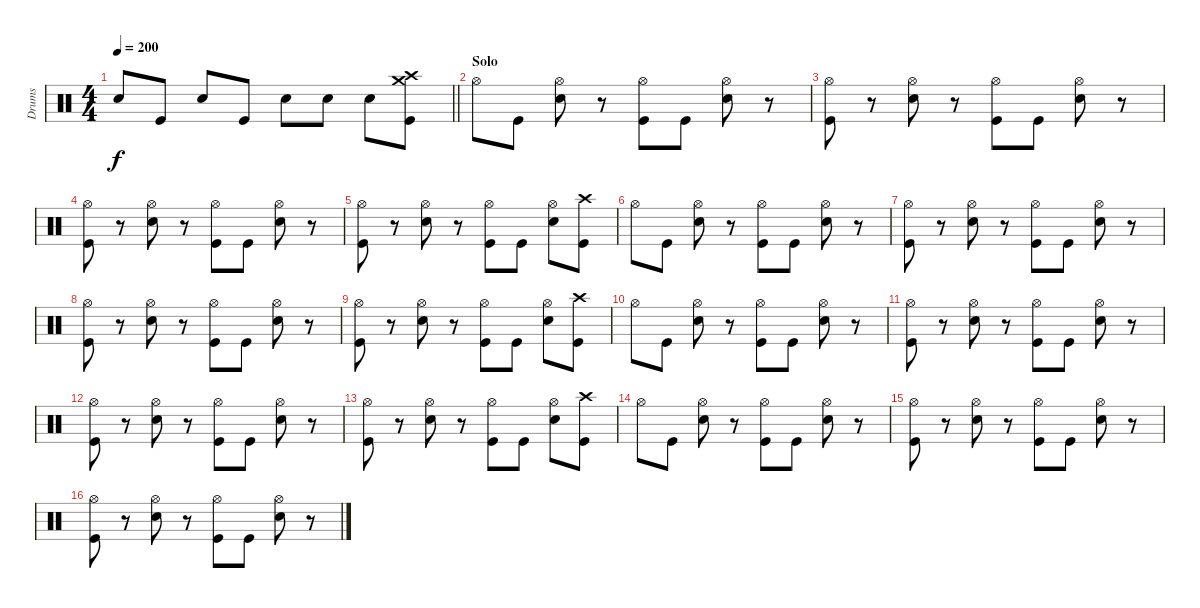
\track ("Drums" "Drums") {instrument percussion}
\staff {score}
\articulation defaults
\ts (4 4)
\tempo 200
\clef neutral
\barLineRight lightlight
\ks c "Electric Snare (hit)".8{dy f} "Kick (hit)".8 "Electric Snare (hit)".8 "Kick (hit)".8 "Electric Snare (hit)".8 "Electric Snare (hit)".8 "Electric Snare (hit)".8
("Crash high (hit)" "Crash medium (hit)" "Kick (hit)").8 |
\section ("" "Solo")
"Hi-Hat (open)".8 "Kick (hit)".8 ("Hi-Hat (open)" "Electric Snare (hit)").8 r.8 ("Hi-Hat (open)" "Kick (hit)").8 "Kick (hit)".8 ("Hi-Hat (open)" "Electric Snare (hit)").8 r.8 |
("Hi-Hat (open)" "Kick (hit)").8 r.8 ("Hi-Hat (open)" "Electric Snare (hit)").8 r.8 ("Hi-Hat (open)" "Kick (hit)").8 "Kick (hit)".8 ("Hi-Hat (open)" "Electric Snare (hit)").8 r.8 |
("Hi-Hat (open)" "Kick (hit)").8 r.8 ("Hi-Hat (open)" "Electric Snare (hit)").8 r.8 ("Hi-Hat (open)" "Kick (hit)").8 "Kick (hit)".8 ("Hi-Hat (open)" "Electric Snare (hit)").8 r.8 |
("Hi-Hat (open)" "Kick (hit)").8 r.8 ("Hi-Hat (open)" "Electric Snare (hit)").8 r.8 ("Hi-Hat (open)" "Kick (hit)").8 "Kick (hit)".8 ("Hi-Hat (open)" "Electric Snare (hit)").8 ("Crash high (hit)" "Kick (hit)").8 |
"Hi-Hat (open)".8 "Kick (hit)".8 ("Hi-Hat (open)" "Electric Snare (hit)").8 r.8 ("Hi-Hat (open)" "Kick (hit)").8 "Kick (hit)".8 ("Hi-Hat (open)" "Electric Snare (hit)").8 r.8 |
("Hi-Hat (open)" "Kick (hit)").8 r.8 ("Hi-Hat (open)" "Electric Snare (hit)").8 r.8 ("Hi-Hat (open)" "Kick (hit)").8 "Kick (hit)".8 ("Hi-Hat (open)" "Electric Snare (hit)").8 r.8 |
("Hi-Hat (open)" "Kick (hit)").8 r.8 ("Hi-Hat (open)" "Electric Snare (hit)").8 r.8 ("Hi-Hat (open)" "Kick (hit)").8 "Kick (hit)".8 ("Hi-Hat (open)" "Electric Snare (hit)").8 r.8 |
("Hi-Hat (open)" "Kick (hit)").8 r.8 ("Hi-Hat (open)" "Electric Snare (hit)").8 r.8 ("Hi-Hat (open)" "Kick (hit)").8 "Kick (hit)".8 ("Hi-Hat (open)" "Electric Snare (hit)").8 ("Crash high (hit)" "Kick (hit)").8 |
"Hi-Hat (open)".8 "Kick (hit)".8 ("Hi-Hat (open)" "Electric Snare (hit)").8 r.8 ("Hi-Hat (open)" "Kick (hit)").8 "Kick (hit)".8 ("Hi-Hat (open)" "Electric Snare (hit)").8 r.8 |
("Hi-Hat (open)" "Kick (hit)").8 r.8 ("Hi-Hat (open)" "Electric Snare (hit)").8 r.8 ("Hi-Hat (open)" "Kick (hit)").8 "Kick (hit)".8 ("Hi-Hat (open)" "Electric Snare (hit)").8 r.8 |
("Hi-Hat (open)" "Kick (hit)").8 r.8 ("Hi-Hat (open)" "Electric Snare (hit)").8 r.8 ("Hi-Hat (open)" "Kick (hit)").8 "Kick (hit)".8 ("Hi-Hat (open)" "Electric Snare (hit)").8 r.8 |
("Hi-Hat (open)" "Kick (hit)").8 r.8 ("Hi-Hat (open)" "Electric Snare (hit)").8 r.8 ("Hi-Hat (open)" "Kick (hit)").8 "Kick (hit)".8 ("Hi-Hat (open)" "Electric Snare (hit)").8 ("Crash high (hit)" "Kick (hit)").8 |
"Hi-Hat (open)".8 "Kick (hit)".8 ("Hi-Hat (open)" "Electric Snare (hit)").8 r.8 ("Hi-Hat (open)" "Kick (hit)").8 "Kick (hit)".8 ("Hi-Hat (open)" "Electric Snare (hit)").8 r.8 |
("Hi-Hat (open)" "Kick (hit)").8 r.8 ("Hi-Hat (open)" "Electric Snare (hit)").8 r.8 ("Hi-Hat (open)" "Kick (hit)").8 "Kick (hit)".8 ("Hi-Hat (open)" "Electric Snare (hit)").8 r.8 |
("Hi-Hat (open)" "Kick (hit)").8 r.8 ("Hi-Hat (open)" "Electric Snare (hit)").8 r.8 ("Hi-Hat (open)" "Kick (hit)").8 "Kick (hit)".8 ("Hi-Hat (open)" "Electric Snare (hit)").8 r.8
